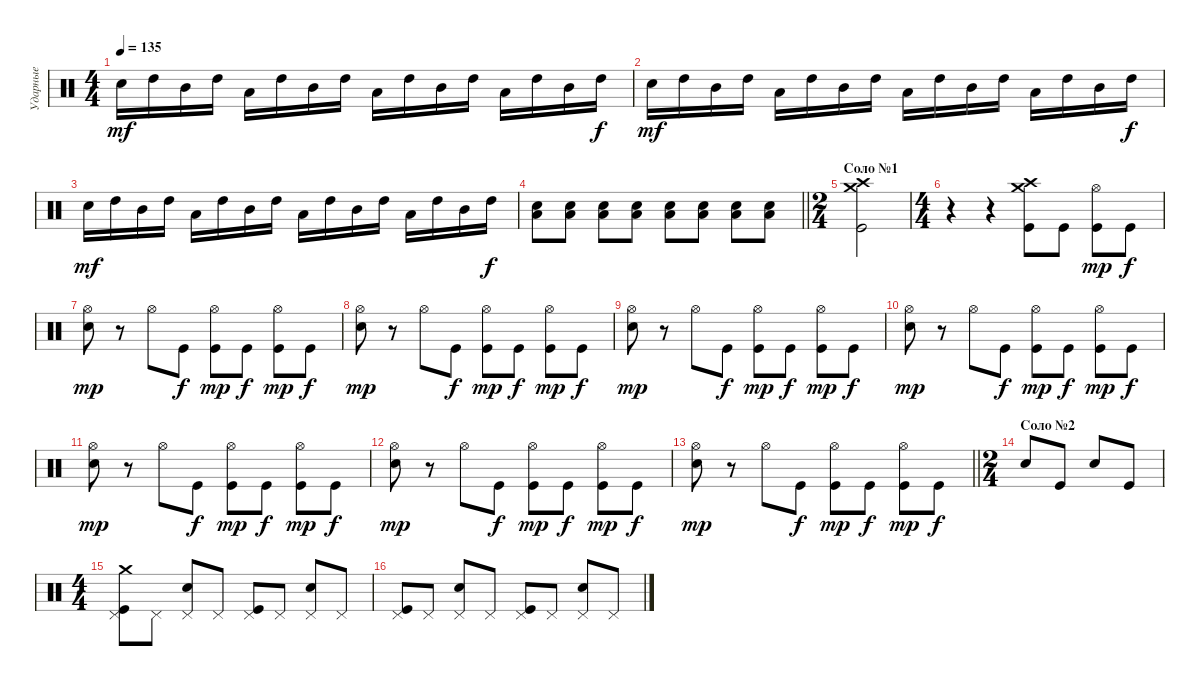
\track ("Ударные" "Ударные") {instrument percussion bank 9}
\staff {score}
\articulation defaults
\ts (4 4)
\tempo 135
\clef neutral
\ks c "Electric Snare (hit)".16{dy mf} "High Tom (hit)".16 "Mid Tom (hit)".16 "High Tom (hit)".16 "Low Tom (hit)".16 "High Tom (hit)".16 "Mid Tom (hit)".16 "High Tom (hit)".16 "Low Tom (hit)".16 "High Tom (hit)".16 "Mid Tom (hit)".16 "High Tom (hit)".16 "Low Tom (hit)".16 "High Tom (hit)".16 "Mid Tom (hit)".16 "High Tom (hit)".16{dy f}
|
"Electric Snare (hit)".16{dy mf} "High Tom (hit)".16 "Mid Tom (hit)".16 "High Tom (hit)".16 "Low Tom (hit)".16 "High Tom (hit)".16 "Mid Tom (hit)".16 "High Tom (hit)".16 "Low Tom (hit)".16 "High Tom (hit)".16 "Mid Tom (hit)".16 "High Tom (hit)".16 "Low Tom (hit)".16 "High Tom (hit)".16 "Mid Tom (hit)".16 "High Tom (hit)".16{dy f} |
"Electric Snare (hit)".16{dy mf} "High Tom (hit)".16 "Mid Tom (hit)".16 "High Tom (hit)".16 "Low Tom (hit)".16 "High Tom (hit)".16 "Mid Tom (hit)".16 "High Tom (hit)".16 "Low Tom (hit)".16 "High Tom (hit)".16 "Mid Tom (hit)".16 "High Tom (hit)".16 "Low Tom (hit)".16 "High Tom (hit)".16 "Mid Tom (hit)".16 "High Tom (hit)".16{dy f} |
\barLineRight lightlight
("Low Tom (hit)" "Electric Snare (hit)").8 ("Low Tom (hit)" "Electric Snare (hit)").8 ("Low Tom (hit)" "Electric Snare (hit)").8 ("Low Tom (hit)" "Electric Snare (hit)").8 ("Low Tom (hit)" "Electric Snare (hit)").8 ("Low Tom (hit)" "Electric Snare (hit)").8 ("Low Tom (hit)" "Electric Snare (hit)").8 ("Low Tom (hit)" "Electric Snare (hit)").8 |
\ts (2 4)
\section ("" "Соло №1")
("Crash medium (hit)" "Crash high (hit)" "Kick (hit)").2 |
\ts (4 4)
r.4 r.4 ("Crash medium (hit)" "Crash high (hit)" "Kick (hit)").8 "Kick (hit)".8 ("Kick (hit)" "Hi-Hat (open)").8{dy mp} "Kick (hit)".8{dy f} |
("Electric Snare (hit)" "Hi-Hat (open)").8{dy mp} r.8 "Hi-Hat (open)".8 "Kick (hit)".8{dy f} ("Kick (hit)" "Hi-Hat (open)").8{dy mp} "Kick (hit)".8{dy f} ("Kick (hit)" "Hi-Hat (open)").8{dy mp} "Kick (hit)".8{dy f} |
("Electric Snare (hit)" "Hi-Hat (open)").8{dy mp} r.8 "Hi-Hat (open)".8 "Kick (hit)".8{dy f} ("Kick (hit)" "Hi-Hat (open)").8{dy mp} "Kick (hit)".8{dy f} ("Kick (hit)" "Hi-Hat (open)").8{dy mp} "Kick (hit)".8{dy f} |
("Electric Snare (hit)" "Hi-Hat (open)").8{dy mp} r.8 "Hi-Hat (open)".8 "Kick (hit)".8{dy f} ("Kick (hit)" "Hi-Hat (open)").8{dy mp} "Kick (hit)".8{dy f} ("Kick (hit)" "Hi-Hat (open)").8{dy mp} "Kick (hit)".8{dy f} |
("Electric Snare (hit)" "Hi-Hat (open)").8{dy mp} r.8 "Hi-Hat (open)".8 "Kick (hit)".8{dy f} ("Kick (hit)" "Hi-Hat (open)").8{dy mp} "Kick (hit)".8{dy f} ("Kick (hit)" "Hi-Hat (open)").8{dy mp} "Kick (hit)".8{dy f} |
("Electric Snare (hit)" "Hi-Hat (open)").8{dy mp} r.8 "Hi-Hat (open)".8 "Kick (hit)".8{dy f} ("Kick (hit)" "Hi-Hat (open)").8{dy mp} "Kick (hit)".8{dy f} ("Kick (hit)" "Hi-Hat (open)").8{dy mp} "Kick (hit)".8{dy f} |
("Electric Snare (hit)" "Hi-Hat (open)").8{dy mp} r.8 "Hi-Hat (open)".8 "Kick (hit)".8{dy f} ("Kick (hit)" "Hi-Hat (open)").8{dy mp} "Kick (hit)".8{dy f} ("Kick (hit)" "Hi-Hat (open)").8{dy mp} "Kick (hit)".8{dy f} |
\barLineRight lightlight
("Electric Snare (hit)" "Hi-Hat (open)").8{dy mp} r.8 "Hi-Hat (open)".8 "Kick (hit)".8{dy f} ("Kick (hit)" "Hi-Hat (open)").8{dy mp} "Kick (hit)".8{dy f} ("Kick (hit)" "Hi-Hat (open)").8{dy mp} "Kick (hit)".8{dy f} |
\ts (2 4)
\section ("" "Соло №2")
"Electric Snare (hit)".8 "Kick (hit)".8 "Electric Snare (hit)".8 "Kick (hit)".8 |
\ts (4 4)
("Crash medium (hit)" "Pedal Hi-Hat (hit)" "Kick (hit)").8 "Pedal Hi-Hat (hit)".8 ("Pedal Hi-Hat (hit)" "Electric Snare (hit)").8 "Pedal Hi-Hat (hit)".8 ("Pedal Hi-Hat (hit)" "Kick (hit)").8 "Pedal Hi-Hat (hit)".8 ("Pedal Hi-Hat (hit)" "Electric Snare (hit)").8 "Pedal Hi-Hat (hit)".8 |
("Pedal Hi-Hat (hit)" "Kick (hit)").8 "Pedal Hi-Hat (hit)".8 ("Pedal Hi-Hat (hit)" "Electric Snare (hit)").8 "Pedal Hi-Hat (hit)".8 ("Pedal Hi-Hat (hit)" "Kick (hit)").8 "Pedal Hi-Hat (hit)".8 ("Pedal Hi-Hat (hit)" "Electric Snare (hit)").8 "Pedal Hi-Hat (hit)".8
